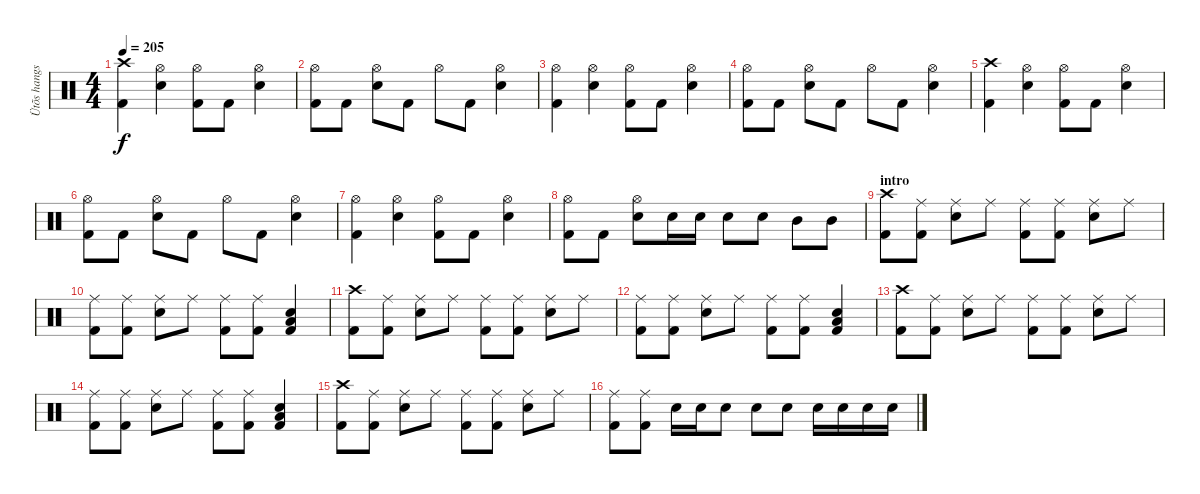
\track ("Ütõs hangszer" "Ütõs hangs") {instrument percussion}
\staff {score}
\articulation defaults
\ts (4 4)
\tempo 205
\clef neutral
\ks c
("Crash high (hit)" "Kick (hit) 2").4{dy f} ("Hi-Hat (open)" "Snare (hit) 2").4 ("Hi-Hat (open)" "Kick (hit) 2").8 "Kick (hit) 2".8 ("Hi-Hat (open)" "Snare (hit) 2").4 |
("Hi-Hat (open)" "Kick (hit) 2").8 "Kick (hit) 2".8 ("Hi-Hat (open)" "Snare (hit) 2").8 "Kick (hit) 2".8 "Hi-Hat (open)".8 "Kick (hit) 2".8 ("Hi-Hat (open)" "Snare (hit) 2").4 |
("Hi-Hat (open)" "Kick (hit) 2").4 ("Hi-Hat (open)" "Snare (hit) 2").4 ("Hi-Hat (open)" "Kick (hit) 2").8 "Kick (hit) 2".8 ("Hi-Hat (open)" "Snare (hit) 2").4 |
("Hi-Hat (open)" "Kick (hit) 2").8 "Kick (hit) 2".8 ("Hi-Hat (open)" "Snare (hit) 2").8 "Kick (hit) 2".8 "Hi-Hat (open)".8 "Kick (hit) 2".8 ("Hi-Hat (open)" "Snare (hit) 2").4 |
("Crash high (hit)" "Kick (hit) 2").4 ("Hi-Hat (open)" "Snare (hit) 2").4 ("Hi-Hat (open)" "Kick (hit) 2").8 "Kick (hit) 2".8 ("Hi-Hat (open)" "Snare (hit) 2").4 |
("Hi-Hat (open)" "Kick (hit) 2").8 "Kick (hit) 2".8 ("Hi-Hat (open)" "Snare (hit) 2").8 "Kick (hit) 2".8 "Hi-Hat (open)".8 "Kick (hit) 2".8 ("Hi-Hat (open)" "Snare (hit) 2").4 |
("Hi-Hat (open)" "Kick (hit) 2").4 ("Hi-Hat (open)" "Snare (hit) 2").4 ("Hi-Hat (open)" "Kick (hit) 2").8 "Kick (hit) 2".8 ("Hi-Hat (open)" "Snare (hit) 2").4 |
("Hi-Hat (open)" "Kick (hit) 2").8 "Kick (hit) 2".8 ("Hi-Hat (open)" "Snare (hit) 2").8 "Snare (hit) 2".16 "Snare (hit) 2".16 "Snare (hit) 2".8 "Snare (hit) 2".8 "Mid Tom (hit)".8 "Mid Tom (hit)".8 |
\section ("" "intro")
("Crash high (hit)" "Kick (hit) 2").8 ("Ride (middle)" "Kick (hit) 2").8 ("Ride (middle)" "Snare (hit) 2").8 "Ride (middle)".8 ("Ride (middle)" "Kick (hit) 2").8 ("Ride (middle)" "Kick (hit) 2").8 ("Ride (middle)" "Snare (hit) 2").8 "Ride (middle)".8 |
("Ride (middle)" "Kick (hit) 2").8 ("Ride (middle)" "Kick (hit) 2").8 ("Ride (middle)" "Snare (hit) 2").8 "Ride (middle)".8 ("Ride (middle)" "Kick (hit) 2").8 ("Ride (middle)" "Kick (hit) 2").8 ("Kick (hit) 2" "Low Tom (hit)" "Snare (hit) 2").4 |
("Crash high (hit)" "Kick (hit) 2").8 ("Ride (middle)" "Kick (hit) 2").8 ("Ride (middle)" "Snare (hit) 2").8 "Ride (middle)".8 ("Ride (middle)" "Kick (hit) 2").8 ("Ride (middle)" "Kick (hit) 2").8 ("Ride (middle)" "Snare (hit) 2").8 "Ride (middle)".8 |
("Ride (middle)" "Kick (hit) 2").8 ("Ride (middle)" "Kick (hit) 2").8 ("Ride (middle)" "Snare (hit) 2").8 "Ride (middle)".8 ("Ride (middle)" "Kick (hit) 2").8 ("Ride (middle)" "Kick (hit) 2").8 ("Kick (hit) 2" "Low Tom (hit)" "Snare (hit) 2").4 |
("Crash high (hit)" "Kick (hit) 2").8 ("Ride (middle)" "Kick (hit) 2").8 ("Ride (middle)" "Snare (hit) 2").8 "Ride (middle)".8 ("Ride (middle)" "Kick (hit) 2").8 ("Ride (middle)" "Kick (hit) 2").8 ("Ride (middle)" "Snare (hit) 2").8 "Ride (middle)".8 |
("Ride (middle)" "Kick (hit) 2").8 ("Ride (middle)" "Kick (hit) 2").8 ("Ride (middle)" "Snare (hit) 2").8 "Ride (middle)".8 ("Ride (middle)" "Kick (hit) 2").8 ("Ride (middle)" "Kick (hit) 2").8 ("Kick (hit) 2" "Low Tom (hit)" "Snare (hit) 2").4 |
("Crash high (hit)" "Kick (hit) 2").8 ("Ride (middle)" "Kick (hit) 2").8 ("Ride (middle)" "Snare (hit) 2").8 "Ride (middle)".8 ("Ride (middle)" "Kick (hit) 2").8 ("Ride (middle)" "Kick (hit) 2").8 ("Ride (middle)" "Snare (hit) 2").8 "Ride (middle)".8 |
("Ride (middle)" "Kick (hit) 2").8 ("Ride (middle)" "Kick (hit) 2").8 "Snare (hit) 2".16 "Snare (hit) 2".16 "Snare (hit) 2".8 "Snare (hit) 2".8 "Snare (hit) 2".8 "Snare (hit) 2".16 "Snare (hit) 2".16 "Snare (hit) 2".16 "Snare (hit) 2".16
